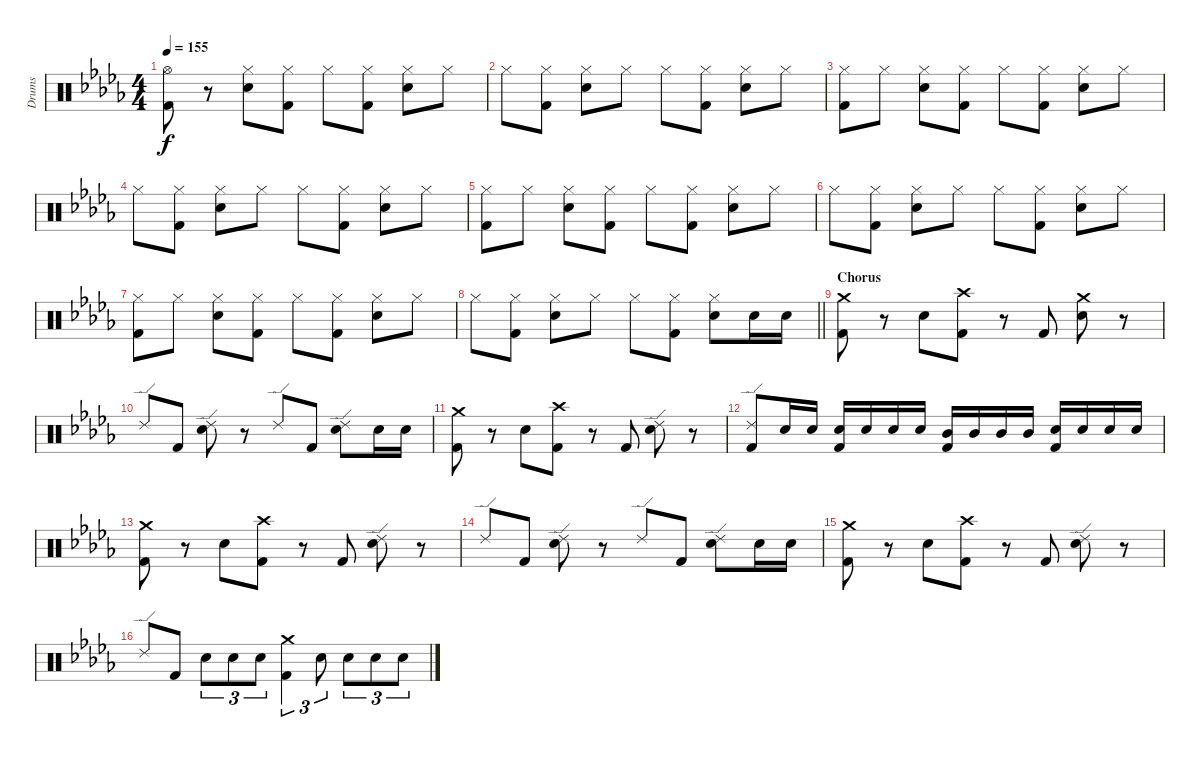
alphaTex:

\track ("Drums" "Drums") {instrument percussion}
\staff {score}
\articulation defaults
\ts (4 4)
\tempo 155
\clef neutral
\ks db
("Hi-Hat (open)" "Kick (hit) 2").8{dy f} r.8 ("Hi-Hat (closed)" "Electric Snare (hit)").8 ("Hi-Hat (closed)" "Kick (hit) 2").8 "Hi-Hat (closed)".8 ("Hi-Hat (closed)" "Kick (hit) 2").8 ("Hi-Hat (closed)" "Electric Snare (hit)").8 "Hi-Hat (closed)".8 |
"Hi-Hat (closed)".8 ("Hi-Hat (closed)" "Kick (hit) 2").8 ("Hi-Hat (closed)" "Electric Snare (hit)").8 "Hi-Hat (closed)".8 "Hi-Hat (closed)".8 ("Hi-Hat (closed)" "Kick (hit) 2").8 ("Hi-Hat (closed)" "Electric Snare (hit)").8 "Hi-Hat (closed)".8 |
("Hi-Hat (closed)" "Kick (hit) 2").8 "Hi-Hat (closed)".8 ("Hi-Hat (closed)" "Electric Snare (hit)").8 ("Hi-Hat (closed)" "Kick (hit) 2").8 "Hi-Hat (closed)".8 ("Hi-Hat (closed)" "Kick (hit) 2").8 ("Hi-Hat (closed)" "Electric Snare (hit)").8 "Hi-Hat (closed)".8 |
"Hi-Hat (closed)".8 ("Hi-Hat (closed)" "Kick (hit) 2").8 ("Hi-Hat (closed)" "Electric Snare (hit)").8 "Hi-Hat (closed)".8 "Hi-Hat (closed)".8 ("Hi-Hat (closed)" "Kick (hit) 2").8 ("Hi-Hat (closed)" "Electric Snare (hit)").8 "Hi-Hat (closed)".8 |
("Hi-Hat (closed)" "Kick (hit) 2").8 "Hi-Hat (closed)".8 ("Hi-Hat (closed)" "Electric Snare (hit)").8 ("Hi-Hat (closed)" "Kick (hit) 2").8 "Hi-Hat (closed)".8 ("Hi-Hat (closed)" "Kick (hit) 2").8 ("Hi-Hat (closed)" "Electric Snare (hit)").8 "Hi-Hat (closed)".8 |
"Hi-Hat (closed)".8 ("Hi-Hat (closed)" "Kick (hit) 2").8 ("Hi-Hat (closed)" "Electric Snare (hit)").8 "Hi-Hat (closed)".8 "Hi-Hat (closed)".8 ("Hi-Hat (closed)" "Kick (hit) 2").8 ("Hi-Hat (closed)" "Electric Snare (hit)").8 "Hi-Hat (closed)".8 |
("Hi-Hat (closed)" "Kick (hit) 2").8 "Hi-Hat (closed)".8 ("Hi-Hat (closed)" "Electric Snare (hit)").8 ("Hi-Hat (closed)" "Kick (hit) 2").8 "Hi-Hat (closed)".8 ("Hi-Hat (closed)" "Kick (hit) 2").8 ("Hi-Hat (closed)" "Electric Snare (hit)").8 "Hi-Hat (closed)".8 |
\barLineRight lightlight "Hi-Hat (closed)".8
("Hi-Hat (closed)" "Kick (hit) 2").8 ("Hi-Hat (closed)" "Electric Snare (hit)").8 "Hi-Hat (closed)".8 "Hi-Hat (closed)".8 ("Hi-Hat (closed)" "Kick (hit) 2").8 ("Hi-Hat (closed)" "Electric Snare (hit)").8 "Electric Snare (hit)".16 "Electric Snare (hit)".16 |
\section ("" "Chorus")
("Crash medium (hit)" "Kick (hit) 2").8 r.8 "Electric Snare (hit)".8 ("Crash high (hit)" "Kick (hit) 2").8 r.8 "Kick (hit) 2".8 ("Crash medium (hit)" "Electric Snare (hit)").8 r.8 |
"Ride (edge) 2".8 "Kick (hit) 2".8 ("Ride (edge) 2" "Electric Snare (hit)").8 r.8 "Ride (edge) 2".8 "Kick (hit) 2".8 ("Ride (edge) 2" "Electric Snare (hit)").8 "Electric Snare (hit)".16 "Electric Snare (hit)".16 |
("Crash medium (hit)" "Kick (hit) 2").8 r.8 "Electric Snare (hit)".8 ("Crash high (hit)" "Kick (hit) 2").8 r.8 "Kick (hit) 2".8 ("Ride (edge) 2" "Electric Snare (hit)").8 r.8 |
("Ride (edge) 2" "Kick (hit) 2").8 "Electric Snare (hit)".16 "Electric Snare (hit)".16 ("Electric Snare (hit)" "Kick (hit) 2").16 "Electric Snare (hit)".16 "Electric Snare (hit)".16 "Electric Snare (hit)".16 ("Mid Tom (hit)" "Kick (hit) 2").16 "Mid Tom (hit)".16 "Mid Tom (hit)".16 "Mid Tom (hit)".16 ("Electric Snare (hit)" "Kick (hit) 2").16 "Electric Snare (hit)".16 "Electric Snare (hit)".16 "Electric Snare (hit)".16 |
("Crash medium (hit)" "Kick (hit) 2").8 r.8 "Electric Snare (hit)".8 ("Crash high (hit)" "Kick (hit) 2").8 r.8 "Kick (hit) 2".8 ("Ride (edge) 2" "Electric Snare (hit)").8 r.8 |
"Ride (edge) 2".8 "Kick (hit) 2".8 ("Ride (edge) 2" "Electric Snare (hit)").8 r.8 "Ride (edge) 2".8 "Kick (hit) 2".8 ("Ride (edge) 2" "Electric Snare (hit)").8 "Electric Snare (hit)".16 "Electric Snare (hit)".16 |
("Crash medium (hit)" "Kick (hit) 2").8 r.8 "Electric Snare (hit)".8 ("Crash high (hit)" "Kick (hit) 2").8 r.8 "Kick (hit) 2".8 ("Ride (edge) 2" "Electric Snare (hit)").8 r.8 |
"Ride (edge) 2".8 "Kick (hit) 2".8 "Electric Snare (hit)".8{tu (3 2)} "Electric Snare (hit)".8{tu (3 2)} "Electric Snare (hit)".8{tu (3 2)} ("Crash medium (hit)" "Kick (hit) 2").4{tu (3 2)} "Electric Snare (hit)".8{tu (3 2)} "Electric Snare (hit)".8{tu (3 2)} "Electric Snare (hit)".8{tu (3 2)} "Electric Snare (hit)".8{tu (3 2)}
